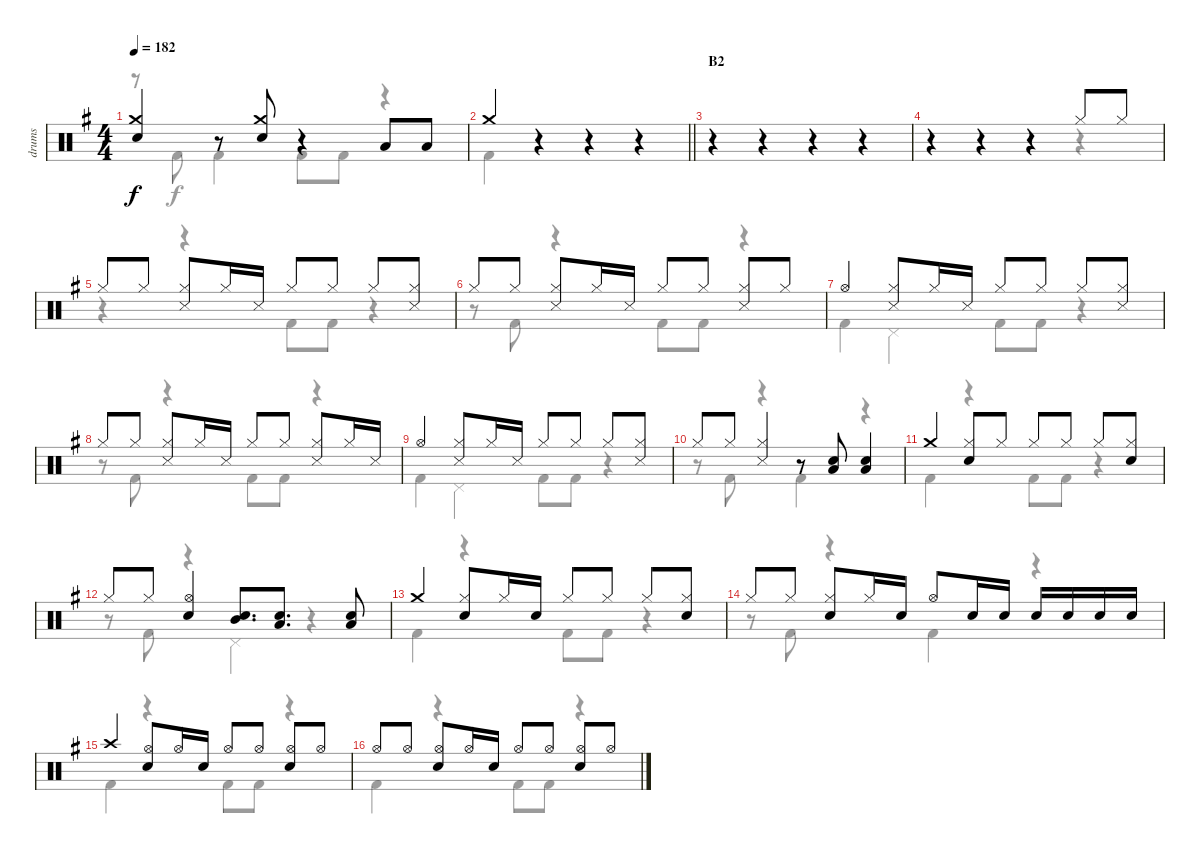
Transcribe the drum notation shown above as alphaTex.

\track ("drums" "drums") {instrument percussion}
\staff {score}
\articulation defaults
\voice
\ts (4 4)
\tempo 182
\clef neutral
\ks g
("Crash medium (hit)" "Snare (hit) 2").4{dy f} r.8 ("Crash medium (hit)" "Snare (hit) 2").8 r.4 "Low Tom (hit)".8 "Low Floor Tom (hit)".8 |
\barLineRight lightlight "Crash medium (hit)".4
r.4 r.4 r.4 |
\section ("" "B2")
r.4 r.4 r.4 r.4 |
r.4 r.4 r.4 "Hi-Hat (closed)".8 "Hi-Hat (closed)".8 |
"Hi-Hat (closed)".8 "Hi-Hat (closed)".8 ("Hi-Hat (closed)" "Snare (side stick) 3").8 "Hi-Hat (closed)".16 "Snare (side stick) 3".16 "Hi-Hat (closed)".8 "Hi-Hat (closed)".8 "Hi-Hat (closed)".8 ("Hi-Hat (closed)" "Snare (side stick) 3").8 |
"Hi-Hat (closed)".8 "Hi-Hat (closed)".8 ("Hi-Hat (closed)" "Snare (side stick) 3").8 "Hi-Hat (closed)".16 "Snare (side stick) 3".16 "Hi-Hat (closed)".8 "Hi-Hat (closed)".8 ("Hi-Hat (closed)" "Snare (side stick) 3").8 "Hi-Hat (closed)".8 |
"Hi-Hat (open)".4 ("Hi-Hat (closed)" "Snare (side stick) 3").8 "Hi-Hat (closed)".16 "Snare (side stick) 3".16 "Hi-Hat (closed)".8 "Hi-Hat (closed)".8 "Hi-Hat (closed)".8 ("Hi-Hat (closed)" "Snare (side stick) 3").8 |
"Hi-Hat (closed)".8 "Hi-Hat (closed)".8 ("Hi-Hat (closed)" "Snare (side stick) 3").8 "Hi-Hat (closed)".16 "Snare (side stick) 3".16 "Hi-Hat (closed)".8 "Hi-Hat (closed)".8 ("Hi-Hat (closed)" "Snare (side stick) 3").8 "Hi-Hat (closed)".16 "Snare (side stick) 3".16 |
"Hi-Hat (open)".4 ("Hi-Hat (closed)" "Snare (side stick) 3").8 "Hi-Hat (closed)".16 "Snare (side stick) 3".16 "Hi-Hat (closed)".8 "Hi-Hat (closed)".8 "Hi-Hat (closed)".8 ("Hi-Hat (closed)" "Snare (side stick) 3").8 |
"Hi-Hat (closed)".8 "Hi-Hat (closed)".8 ("Hi-Hat (closed)" "Snare (side stick) 3").4 r.8 ("Snare (hit) 2" "Low Floor Tom (hit)").8 ("Snare (hit) 2" "Low Floor Tom (hit)").4 |
"Crash medium (hit)".4 ("Hi-Hat (closed)" "Snare (hit) 2").8 "Hi-Hat (closed)".8 "Hi-Hat (closed)".8 "Hi-Hat (closed)".8 "Hi-Hat (closed)".8 ("Hi-Hat (closed)" "Snare (hit) 2").8 |
"Hi-Hat (closed)".8 "Hi-Hat (closed)".8 ("Hi-Hat (open)" "Snare (hit) 2").4 ("Mid Tom (hit)" "Snare (hit) 2").8{d} ("Low Tom (hit)" "Snare (hit) 2").8{d} ("Snare (hit) 2" "Low Floor Tom (hit)").8 |
"Crash medium (hit)".4 ("Hi-Hat (closed)" "Snare (hit) 2").8 "Hi-Hat (closed)".16 "Snare (hit) 2".16 "Hi-Hat (closed)".8 "Hi-Hat (closed)".8 "Hi-Hat (closed)".8 ("Hi-Hat (closed)" "Snare (hit) 2").8 |
"Hi-Hat (closed)".8 "Hi-Hat (closed)".8 ("Hi-Hat (closed)" "Snare (hit) 2").8 "Hi-Hat (closed)".16 "Snare (hit) 2".16 "Hi-Hat (open)".8 "Snare (hit) 2".16 "Snare (hit) 2".16 "Snare (hit) 2".16 "Snare (hit) 2".16 "Snare (hit) 2".16 "Snare (hit) 2".16 |
"Crash high (hit)".4 ("Hi-Hat (open)" "Snare (hit) 2").8 "Hi-Hat (open)".16 "Snare (hit) 2".16 "Hi-Hat (open)".8 "Hi-Hat (open)".8 ("Hi-Hat (open)" "Snare (hit) 2").8 "Hi-Hat (open)".8 |
"Hi-Hat (open)".8 "Hi-Hat (open)".8 ("Hi-Hat (open)" "Snare (hit) 2").8 "Hi-Hat (open)".16 "Snare (hit) 2".16 "Hi-Hat (open)".8 "Hi-Hat (open)".8 ("Hi-Hat (open)" "Snare (hit) 2").8 "Hi-Hat (open)".8
\voice
\clef neutral
\ottava regular
\simile none
\ks g
r.8{dy f} "Kick (hit) 2".8 "Kick (hit) 2".4 "Kick (hit) 2".8 "Kick (hit) 2".8 r.4 |
\barLineRight lightlight "Kick (hit) 2".4
r.4 r.4 r.4 |
r.4 r.4 r.4 r.4 |
r.4 r.4 r.4 r.4 |
r.4 r.4 "Kick (hit) 2".8 "Kick (hit) 2".8 r.4 |
r.8 "Kick (hit) 2".8 r.4 "Kick (hit) 2".8 "Kick (hit) 2".8 r.4 |
"Kick (hit) 2".4 "Pedal Hi-Hat (hit)".4 "Kick (hit) 2".8 "Kick (hit) 2".8 r.4 |
r.8 "Kick (hit) 2".8 r.4 "Kick (hit) 2".8 "Kick (hit) 2".8 r.4 |
"Kick (hit) 2".4 "Pedal Hi-Hat (hit)".4 "Kick (hit) 2".8 "Kick (hit) 2".8 r.4 |
r.8 "Kick (hit) 2".8 r.4 "Kick (hit) 2".4 r.4 |
"Kick (hit) 2".4 r.4 "Kick (hit) 2".8 "Kick (hit) 2".8 r.4 |
r.8 "Kick (hit) 2".8 r.4 "Pedal Hi-Hat (hit)".4 r.4 |
"Kick (hit) 2".4 r.4 "Kick (hit) 2".8 "Kick (hit) 2".8 r.4 |
r.8 "Kick (hit) 2".8 r.4 "Kick (hit) 2".4 r.4 |
"Kick (hit) 2".4 r.4 "Kick (hit) 2".8 "Kick (hit) 2".8 r.4 |
"Kick (hit) 2".4 r.4 "Kick (hit) 2".8 "Kick (hit) 2".8 r.4
